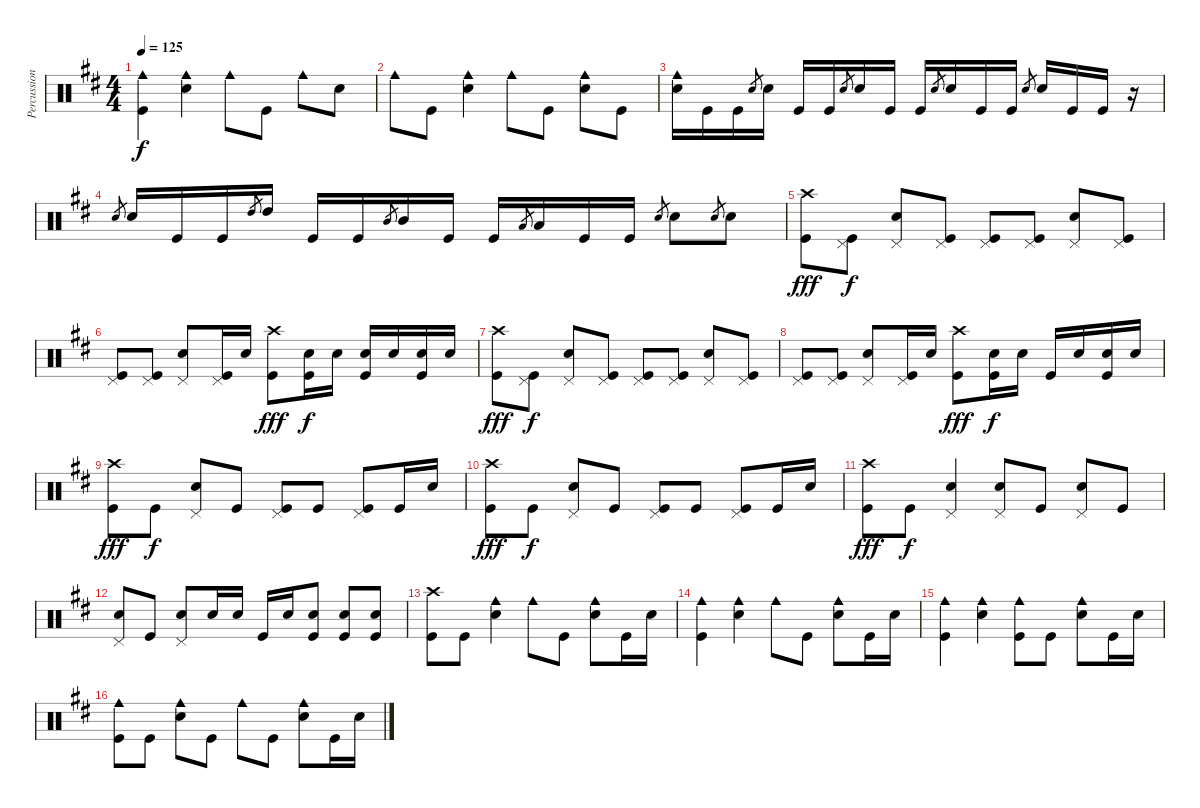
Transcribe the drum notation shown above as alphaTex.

\track ("Percussion" "Percussion") {instrument percussion}
\staff {score}
\articulation defaults
\ts (4 4)
\tempo 125
\clef neutral
\ks d
("Cowbell medium (hit)" "Kick (hit)").4{dy f} ("Cowbell medium (hit)" "Snare (hit) 2").4 "Cowbell medium (hit)".8 "Kick (hit)".8 "Cowbell medium (hit)".8 "Snare (hit) 2".8 |
"Cowbell medium (hit)".8 "Kick (hit)".8 ("Cowbell medium (hit)" "Snare (hit) 2").4 "Cowbell medium (hit)".8 "Kick (hit)".8 ("Cowbell medium (hit)" "Snare (hit) 2").8 "Kick (hit)".8 |
("Cowbell medium (hit)" "Snare (hit) 2").16 "Kick (hit)".16 "Kick (hit)".16 "Snare (hit) 2".8{gr} "Snare (hit) 2".16 "Kick (hit)".16 "Kick (hit)".16 "Snare (hit) 2".8{gr} "Snare (hit) 2".16 "Kick (hit)".16 "Kick (hit)".16 "Snare (hit) 2".8{gr} "Snare (hit) 2".16 "Kick (hit)".16 "Kick (hit)".16 "Snare (hit) 2".8{gr} "Snare (hit) 2".16 "Kick (hit)".16 "Kick (hit)".16 r.16 |
"Snare (hit) 2".8{gr} "Snare (hit) 2".16 "Kick (hit)".16 "Kick (hit)".16 "High Tom (hit)".8{gr} "High Tom (hit)".16 "Kick (hit)".16 "Kick (hit)".16 "Mid Tom (hit)".8{gr} "Mid Tom (hit)".16 "Kick (hit)".16 "Kick (hit)".16 "Low Tom (hit)".8{gr} "Low Tom (hit)".16 "Kick (hit)".16 "Kick (hit)".16 "Snare (hit) 2".8{gr} "Snare (hit) 2".8 "Snare (hit) 2".8{gr} "Snare (hit) 2".8 |
("Crash high (hit)" "Kick (hit)").8{dy fff} ("Pedal Hi-Hat (hit)" "Kick (hit)").8{dy f} ("Pedal Hi-Hat (hit)" "Snare (hit) 2").8 ("Pedal Hi-Hat (hit)" "Kick (hit)").8 ("Pedal Hi-Hat (hit)" "Kick (hit)").8 ("Pedal Hi-Hat (hit)" "Kick (hit)").8 ("Pedal Hi-Hat (hit)" "Snare (hit) 2").8 ("Pedal Hi-Hat (hit)" "Kick (hit)").8 |
("Pedal Hi-Hat (hit)" "Kick (hit)").8 ("Pedal Hi-Hat (hit)" "Kick (hit)").8 ("Pedal Hi-Hat (hit)" "Snare (hit) 2").8 ("Pedal Hi-Hat (hit)" "Kick (hit)").16 "Snare (hit) 2".16 ("Crash high (hit)" "Kick (hit)").8{dy fff} ("Snare (hit) 2" "Kick (hit)").16{dy f} "Snare (hit) 2".16 ("Snare (hit) 2" "Kick (hit)").16 "Snare (hit) 2".16 ("Snare (hit) 2" "Kick (hit)").16 "Snare (hit) 2".16 |
("Crash high (hit)" "Kick (hit)").8{dy fff} ("Pedal Hi-Hat (hit)" "Kick (hit)").8{dy f} ("Pedal Hi-Hat (hit)" "Snare (hit) 2").8 ("Pedal Hi-Hat (hit)" "Kick (hit)").8 ("Pedal Hi-Hat (hit)" "Kick (hit)").8 ("Pedal Hi-Hat (hit)" "Kick (hit)").8 ("Pedal Hi-Hat (hit)" "Snare (hit) 2").8 ("Pedal Hi-Hat (hit)" "Kick (hit)").8 |
("Pedal Hi-Hat (hit)" "Kick (hit)").8 ("Pedal Hi-Hat (hit)" "Kick (hit)").8 ("Pedal Hi-Hat (hit)" "Snare (hit) 2").8 ("Pedal Hi-Hat (hit)" "Kick (hit)").16 "Snare (hit) 2".16 ("Crash high (hit)" "Kick (hit)").8{dy fff} ("Snare (hit) 2" "Kick (hit)").16{dy f} "Snare (hit) 2".16 "Kick (hit)".16 "Snare (hit) 2".16 ("Snare (hit) 2" "Kick (hit)").16 "Snare (hit) 2".16 |
("Crash high (hit)" "Kick (hit)").8{dy fff} "Kick (hit)".8{dy f} ("Pedal Hi-Hat (hit)" "Snare (hit) 2").8 "Kick (hit)".8 ("Pedal Hi-Hat (hit)" "Kick (hit)").8 "Kick (hit)".8 ("Pedal Hi-Hat (hit)" "Kick (hit)").8 "Kick (hit)".16 "Snare (hit) 2".16 |
("Crash high (hit)" "Kick (hit)").8{dy fff} "Kick (hit)".8{dy f} ("Pedal Hi-Hat (hit)" "Snare (hit) 2").8 "Kick (hit)".8 ("Pedal Hi-Hat (hit)" "Kick (hit)").8 "Kick (hit)".8 ("Pedal Hi-Hat (hit)" "Kick (hit)").8 "Kick (hit)".16 "Snare (hit) 2".16 |
("Crash high (hit)" "Kick (hit)").8{dy fff} "Kick (hit)".8{dy f} ("Pedal Hi-Hat (hit)" "Snare (hit) 2").4 ("Pedal Hi-Hat (hit)" "Snare (hit) 2").8 "Kick (hit)".8 ("Pedal Hi-Hat (hit)" "Snare (hit) 2").8 "Kick (hit)".8 |
("Pedal Hi-Hat (hit)" "Snare (hit) 2").8 "Kick (hit)".8 ("Pedal Hi-Hat (hit)" "Snare (hit) 2").8 "Snare (hit) 2".16 "Snare (hit) 2".16 "Kick (hit)".16 "Snare (hit) 2".16 ("Snare (hit) 2" "Kick (hit)").8 ("Snare (hit) 2" "Kick (hit)").8 ("Snare (hit) 2" "Kick (hit)").8 |
("Crash high (hit)" "Kick (hit)").8 "Kick (hit)".8 ("Cowbell medium (hit)" "Snare (hit) 2").4 "Cowbell medium (hit)".8 "Kick (hit)".8 ("Cowbell medium (hit)" "Snare (hit) 2").8 "Kick (hit)".16 "Snare (hit) 2".16 |
("Cowbell medium (hit)" "Kick (hit)").4 ("Cowbell medium (hit)" "Snare (hit) 2").4 "Cowbell medium (hit)".8 "Kick (hit)".8 ("Cowbell medium (hit)" "Snare (hit) 2").8 "Kick (hit)".16 "Snare (hit) 2".16 |
("Cowbell medium (hit)" "Kick (hit)").4 ("Cowbell medium (hit)" "Snare (hit) 2").4 ("Cowbell medium (hit)" "Kick (hit)").8 "Kick (hit)".8 ("Cowbell medium (hit)" "Snare (hit) 2").8 "Kick (hit)".16 "Snare (hit) 2".16 |
("Cowbell medium (hit)" "Kick (hit)").8 "Kick (hit)".8 ("Cowbell medium (hit)" "Snare (hit) 2").8 "Kick (hit)".8 "Cowbell medium (hit)".8 "Kick (hit)".8 ("Cowbell medium (hit)" "Snare (hit) 2").8 "Kick (hit)".16 "Snare (hit) 2".16
